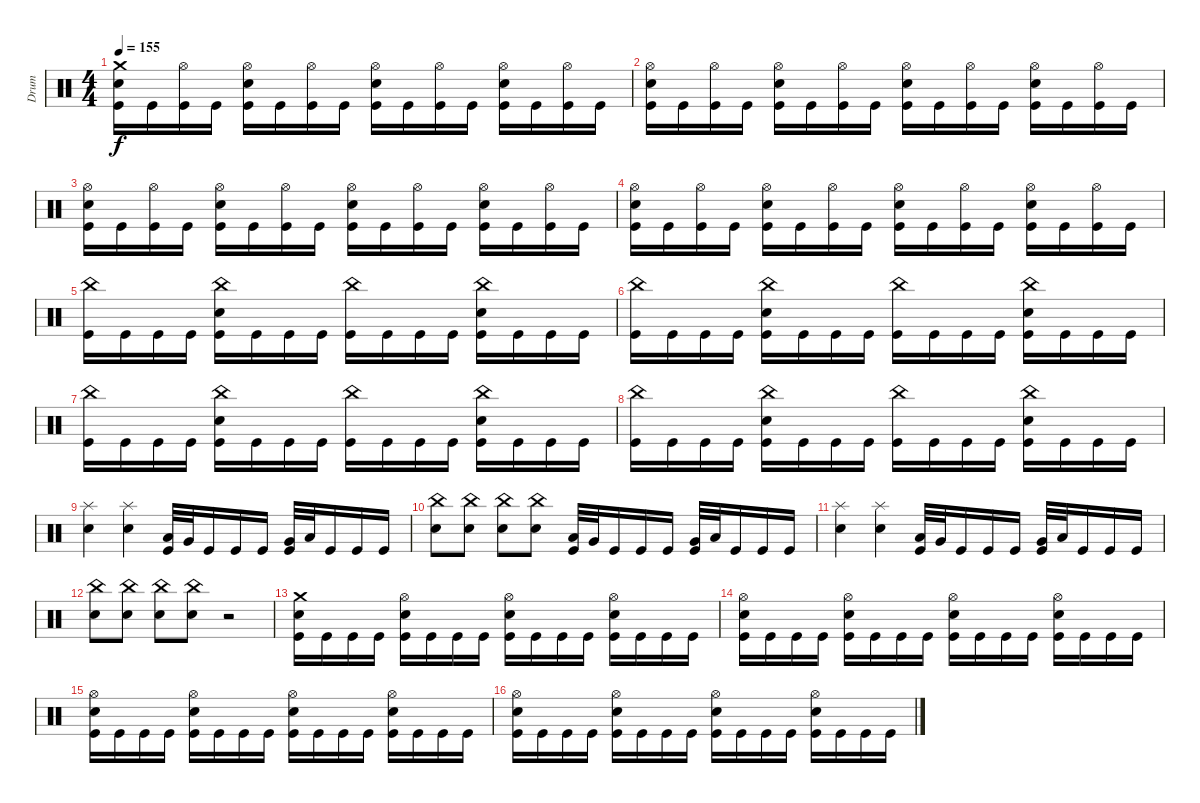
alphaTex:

\track ("Drum" "Drum") {instrument percussion}
\staff {score}
\articulation defaults
\ts (4 4)
\tempo 155
\clef neutral
\ks c
("Kick (hit)" "Electric Snare (hit)" "Crash medium (hit)").16{dy f} "Kick (hit)".16 ("Kick (hit)" "Hi-Hat (open)").16 "Kick (hit)".16 ("Kick (hit)" "Electric Snare (hit)" "Hi-Hat (open)").16 "Kick (hit)".16 ("Kick (hit)" "Hi-Hat (open)").16 "Kick (hit)".16 ("Kick (hit)" "Electric Snare (hit)" "Hi-Hat (open)").16 "Kick (hit)".16 ("Kick (hit)" "Hi-Hat (open)").16 "Kick (hit)".16 ("Kick (hit)" "Electric Snare (hit)" "Hi-Hat (open)").16 "Kick (hit)".16 ("Kick (hit)" "Hi-Hat (open)").16 "Kick (hit)".16 |
("Kick (hit)" "Electric Snare (hit)" "Hi-Hat (open)").16 "Kick (hit)".16 ("Kick (hit)" "Hi-Hat (open)").16 "Kick (hit)".16 ("Kick (hit)" "Electric Snare (hit)" "Hi-Hat (open)").16 "Kick (hit)".16 ("Kick (hit)" "Hi-Hat (open)").16 "Kick (hit)".16 ("Kick (hit)" "Electric Snare (hit)" "Hi-Hat (open)").16 "Kick (hit)".16 ("Kick (hit)" "Hi-Hat (open)").16 "Kick (hit)".16 ("Kick (hit)" "Electric Snare (hit)" "Hi-Hat (open)").16 "Kick (hit)".16 ("Kick (hit)" "Hi-Hat (open)").16 "Kick (hit)".16 |
("Kick (hit)" "Electric Snare (hit)" "Hi-Hat (open)").16 "Kick (hit)".16 ("Kick (hit)" "Hi-Hat (open)").16 "Kick (hit)".16 ("Kick (hit)" "Electric Snare (hit)" "Hi-Hat (open)").16 "Kick (hit)".16 ("Kick (hit)" "Hi-Hat (open)").16 "Kick (hit)".16 ("Kick (hit)" "Electric Snare (hit)" "Hi-Hat (open)").16 "Kick (hit)".16 ("Kick (hit)" "Hi-Hat (open)").16 "Kick (hit)".16 ("Kick (hit)" "Electric Snare (hit)" "Hi-Hat (open)").16 "Kick (hit)".16 ("Kick (hit)" "Hi-Hat (open)").16 "Kick (hit)".16 |
("Kick (hit)" "Electric Snare (hit)" "Hi-Hat (open)").16 "Kick (hit)".16 ("Kick (hit)" "Hi-Hat (open)").16 "Kick (hit)".16 ("Kick (hit)" "Electric Snare (hit)" "Hi-Hat (open)").16 "Kick (hit)".16 ("Kick (hit)" "Hi-Hat (open)").16 "Kick (hit)".16 ("Kick (hit)" "Electric Snare (hit)" "Hi-Hat (open)").16 "Kick (hit)".16 ("Kick (hit)" "Hi-Hat (open)").16 "Kick (hit)".16 ("Kick (hit)" "Electric Snare (hit)" "Hi-Hat (open)").16 "Kick (hit)".16 ("Kick (hit)" "Hi-Hat (open)").16 "Kick (hit)".16 |
("Kick (hit)" "China (hit)").16 "Kick (hit)".16 "Kick (hit)".16 "Kick (hit)".16 ("Kick (hit)" "Electric Snare (hit)" "China (hit)").16 "Kick (hit)".16 "Kick (hit)".16 "Kick (hit)".16 ("Kick (hit)" "China (hit)").16 "Kick (hit)".16 "Kick (hit)".16 "Kick (hit)".16 ("Kick (hit)" "Electric Snare (hit)" "China (hit)").16 "Kick (hit)".16 "Kick (hit)".16 "Kick (hit)".16 |
("Kick (hit)" "China (hit)").16 "Kick (hit)".16 "Kick (hit)".16 "Kick (hit)".16 ("Kick (hit)" "Electric Snare (hit)" "China (hit)").16 "Kick (hit)".16 "Kick (hit)".16 "Kick (hit)".16 ("Kick (hit)" "China (hit)").16 "Kick (hit)".16 "Kick (hit)".16 "Kick (hit)".16 ("Kick (hit)" "Electric Snare (hit)" "China (hit)").16 "Kick (hit)".16 "Kick (hit)".16 "Kick (hit)".16 |
("Kick (hit)" "China (hit)").16 "Kick (hit)".16 "Kick (hit)".16 "Kick (hit)".16 ("Kick (hit)" "Electric Snare (hit)" "China (hit)").16 "Kick (hit)".16 "Kick (hit)".16 "Kick (hit)".16 ("Kick (hit)" "China (hit)").16 "Kick (hit)".16 "Kick (hit)".16 "Kick (hit)".16 ("Kick (hit)" "Electric Snare (hit)" "China (hit)").16 "Kick (hit)".16 "Kick (hit)".16 "Kick (hit)".16 |
("Kick (hit)" "China (hit)").16 "Kick (hit)".16 "Kick (hit)".16 "Kick (hit)".16 ("Kick (hit)" "Electric Snare (hit)" "China (hit)").16 "Kick (hit)".16 "Kick (hit)".16 "Kick (hit)".16 ("Kick (hit)" "China (hit)").16 "Kick (hit)".16 "Kick (hit)".16 "Kick (hit)".16 ("Kick (hit)" "Electric Snare (hit)" "China (hit)").16 "Kick (hit)".16 "Kick (hit)".16 "Kick (hit)".16 |
("Electric Snare (hit)" "Splash (hit)").4 ("Electric Snare (hit)" "Splash (hit)").4 ("Kick (hit)" "Low Tom (hit)").32 "Very Low Tom (hit)".32 "Kick (hit)".16 "Kick (hit)".16 "Kick (hit)".16 ("Kick (hit)" "Very Low Tom (hit)").32 "Low Floor Tom (hit)".32 "Kick (hit)".16 "Kick (hit)".16 "Kick (hit)".16 |
("Electric Snare (hit)" "China (hit)").8 ("Electric Snare (hit)" "China (hit)").8 ("Electric Snare (hit)" "China (hit)").8 ("Electric Snare (hit)" "China (hit)").8 ("Kick (hit)" "Low Tom (hit)").32 "Very Low Tom (hit)".32 "Kick (hit)".16 "Kick (hit)".16 "Kick (hit)".16 ("Kick (hit)" "Very Low Tom (hit)").32 "Low Floor Tom (hit)".32 "Kick (hit)".16 "Kick (hit)".16 "Kick (hit)".16 |
("Electric Snare (hit)" "Splash (hit)").4 ("Electric Snare (hit)" "Splash (hit)").4 ("Kick (hit)" "Low Tom (hit)").32 "Very Low Tom (hit)".32 "Kick (hit)".16 "Kick (hit)".16 "Kick (hit)".16 ("Kick (hit)" "Very Low Tom (hit)").32 "Low Floor Tom (hit)".32 "Kick (hit)".16 "Kick (hit)".16 "Kick (hit)".16 |
("Electric Snare (hit)" "China (hit)").8 ("Electric Snare (hit)" "China (hit)").8 ("Electric Snare (hit)" "China (hit)").8 ("Electric Snare (hit)" "China (hit)").8 r.2 |
("Kick (hit)" "Electric Snare (hit)" "Crash medium (hit)").16 "Kick (hit)".16 "Kick (hit)".16 "Kick (hit)".16 ("Kick (hit)" "Electric Snare (hit)" "Hi-Hat (open)").16 "Kick (hit)".16 "Kick (hit)".16 "Kick (hit)".16 ("Kick (hit)" "Electric Snare (hit)" "Hi-Hat (open)").16 "Kick (hit)".16 "Kick (hit)".16 "Kick (hit)".16 ("Kick (hit)" "Electric Snare (hit)" "Hi-Hat (open)").16 "Kick (hit)".16 "Kick (hit)".16 "Kick (hit)".16 |
("Kick (hit)" "Electric Snare (hit)" "Hi-Hat (open)").16 "Kick (hit)".16 "Kick (hit)".16 "Kick (hit)".16 ("Kick (hit)" "Electric Snare (hit)" "Hi-Hat (open)").16 "Kick (hit)".16 "Kick (hit)".16 "Kick (hit)".16 ("Kick (hit)" "Electric Snare (hit)" "Hi-Hat (open)").16 "Kick (hit)".16 "Kick (hit)".16 "Kick (hit)".16 ("Kick (hit)" "Electric Snare (hit)" "Hi-Hat (open)").16 "Kick (hit)".16 "Kick (hit)".16 "Kick (hit)".16 |
("Kick (hit)" "Electric Snare (hit)" "Hi-Hat (open)").16 "Kick (hit)".16 "Kick (hit)".16 "Kick (hit)".16 ("Kick (hit)" "Electric Snare (hit)" "Hi-Hat (open)").16 "Kick (hit)".16 "Kick (hit)".16 "Kick (hit)".16 ("Kick (hit)" "Electric Snare (hit)" "Hi-Hat (open)").16 "Kick (hit)".16 "Kick (hit)".16 "Kick (hit)".16 ("Kick (hit)" "Electric Snare (hit)" "Hi-Hat (open)").16 "Kick (hit)".16 "Kick (hit)".16 "Kick (hit)".16 |
("Kick (hit)" "Electric Snare (hit)" "Hi-Hat (open)").16 "Kick (hit)".16 "Kick (hit)".16 "Kick (hit)".16 ("Kick (hit)" "Electric Snare (hit)" "Hi-Hat (open)").16 "Kick (hit)".16 "Kick (hit)".16 "Kick (hit)".16 ("Kick (hit)" "Electric Snare (hit)" "Hi-Hat (open)").16 "Kick (hit)".16 "Kick (hit)".16 "Kick (hit)".16 ("Kick (hit)" "Electric Snare (hit)" "Hi-Hat (open)").16 "Kick (hit)".16 "Kick (hit)".16 "Kick (hit)".16
